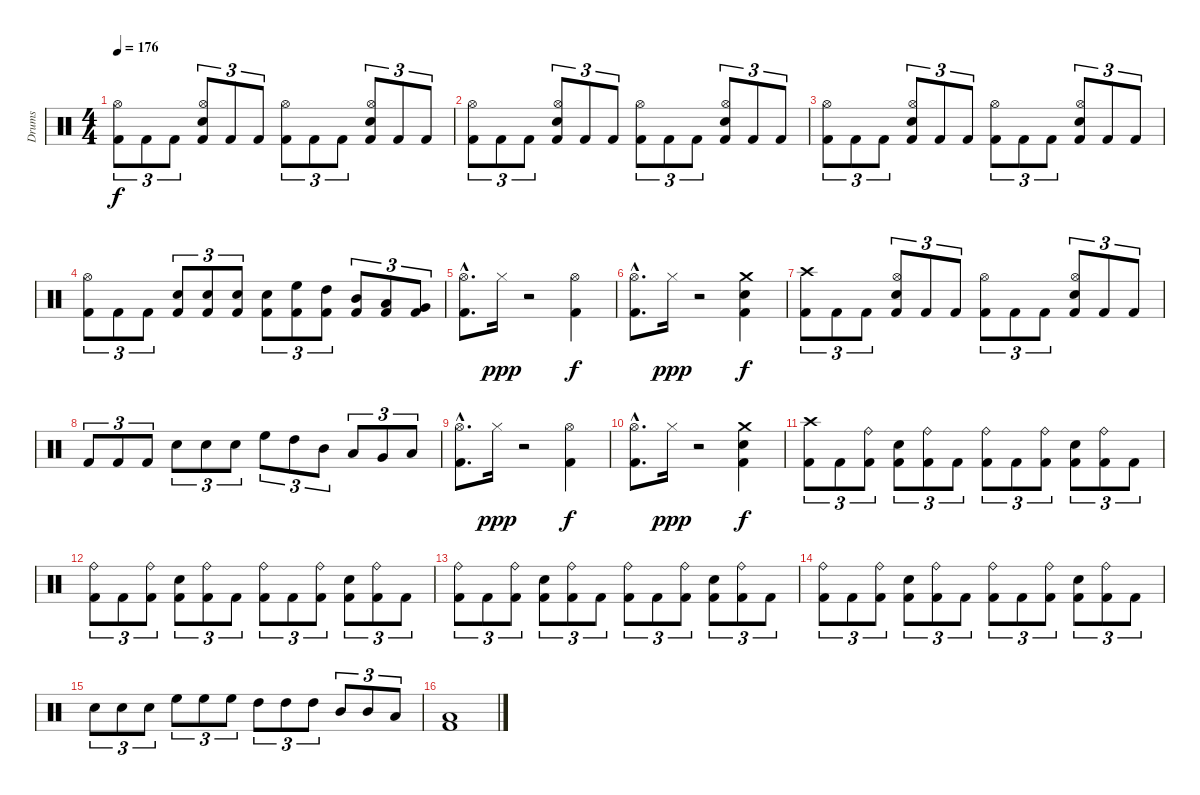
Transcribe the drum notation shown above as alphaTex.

\track ("Drums" "Drums") {instrument percussion}
\staff {score}
\articulation defaults
\ts (4 4)
\tempo 176
\clef neutral
\ks c
("Kick (hit) 2" "Hi-Hat (open)").8{tu (3 2) dy f} "Kick (hit) 2".8{tu (3 2)} "Kick (hit) 2".8{tu (3 2)} ("Kick (hit) 2" "Electric Snare (hit)" "Hi-Hat (open)").8{tu (3 2)} "Kick (hit) 2".8{tu (3 2)} "Kick (hit) 2".8{tu (3 2)} ("Kick (hit) 2" "Hi-Hat (open)").8{tu (3 2)} "Kick (hit) 2".8{tu (3 2)} "Kick (hit) 2".8{tu (3 2)} ("Kick (hit) 2" "Electric Snare (hit)" "Hi-Hat (open)").8{tu (3 2)} "Kick (hit) 2".8{tu (3 2)} "Kick (hit) 2".8{tu (3 2)} |
("Kick (hit) 2" "Hi-Hat (open)").8{tu (3 2)} "Kick (hit) 2".8{tu (3 2)} "Kick (hit) 2".8{tu (3 2)} ("Kick (hit) 2" "Electric Snare (hit)" "Hi-Hat (open)").8{tu (3 2)} "Kick (hit) 2".8{tu (3 2)} "Kick (hit) 2".8{tu (3 2)} ("Kick (hit) 2" "Hi-Hat (open)").8{tu (3 2)} "Kick (hit) 2".8{tu (3 2)} "Kick (hit) 2".8{tu (3 2)} ("Kick (hit) 2" "Electric Snare (hit)" "Hi-Hat (open)").8{tu (3 2)} "Kick (hit) 2".8{tu (3 2)} "Kick (hit) 2".8{tu (3 2)} |
("Kick (hit) 2" "Hi-Hat (open)").8{tu (3 2)} "Kick (hit) 2".8{tu (3 2)} "Kick (hit) 2".8{tu (3 2)} ("Kick (hit) 2" "Electric Snare (hit)" "Hi-Hat (open)").8{tu (3 2)} "Kick (hit) 2".8{tu (3 2)} "Kick (hit) 2".8{tu (3 2)} ("Kick (hit) 2" "Hi-Hat (open)").8{tu (3 2)} "Kick (hit) 2".8{tu (3 2)} "Kick (hit) 2".8{tu (3 2)} ("Kick (hit) 2" "Electric Snare (hit)" "Hi-Hat (open)").8{tu (3 2)} "Kick (hit) 2".8{tu (3 2)} "Kick (hit) 2".8{tu (3 2)} |
("Kick (hit) 2" "Hi-Hat (open)").8{tu (3 2)} "Kick (hit) 2".8{tu (3 2)} "Kick (hit) 2".8{tu (3 2)} ("Kick (hit) 2" "Electric Snare (hit)").8{tu (3 2)} ("Kick (hit) 2" "Electric Snare (hit)").8{tu (3 2)} ("Kick (hit) 2" "Electric Snare (hit)").8{tu (3 2)} ("Kick (hit) 2" "Electric Snare (hit)").8{tu (3 2)} ("Kick (hit) 2" "High Floor Tom (hit)").8{tu (3 2)} ("Kick (hit) 2" "High Tom (hit)").8{tu (3 2)} ("Kick (hit) 2" "Mid Tom (hit)").8{tu (3 2)} ("Kick (hit) 2" "Low Tom (hit)").8{tu (3 2)} ("Kick (hit) 2" "Very Low Tom (hit)").8{tu (3 2)} |
("Kick (hit) 2"{hac} "Hi-Hat (open)"{hac}).8{d} "Hi-Hat (closed)".16{dy ppp} r.2 ("Kick (hit) 2" "Hi-Hat (open)").4{dy f} |
("Kick (hit) 2"{hac} "Hi-Hat (open)"{hac}).8{d} "Hi-Hat (closed)".16{dy ppp} r.2 ("Kick (hit) 2" "Electric Snare (hit)" "Crash medium (hit)").4{dy f} |
("Kick (hit) 2" "Crash high (hit)").8{tu (3 2)} "Kick (hit) 2".8{tu (3 2)} "Kick (hit) 2".8{tu (3 2)} ("Kick (hit) 2" "Electric Snare (hit)" "Hi-Hat (open)").8{tu (3 2)} "Kick (hit) 2".8{tu (3 2)} "Kick (hit) 2".8{tu (3 2)} ("Kick (hit) 2" "Hi-Hat (open)").8{tu (3 2)} "Kick (hit) 2".8{tu (3 2)} "Kick (hit) 2".8{tu (3 2)} ("Kick (hit) 2" "Electric Snare (hit)" "Hi-Hat (open)").8{tu (3 2)} "Kick (hit) 2".8{tu (3 2)} "Kick (hit) 2".8{tu (3 2)} |
"Kick (hit) 2".8{tu (3 2)} "Kick (hit) 2".8{tu (3 2)} "Kick (hit) 2".8{tu (3 2)} "Electric Snare (hit)".8{tu (3 2)} "Electric Snare (hit)".8{tu (3 2)} "Electric Snare (hit)".8{tu (3 2)} "High Floor Tom (hit)".8{tu (3 2)} "High Tom (hit)".8{tu (3 2)} "Mid Tom (hit)".8{tu (3 2)} "Low Tom (hit)".8{tu (3 2)} "Very Low Tom (hit)".8{tu (3 2)} "Low Floor Tom (hit)".8{tu (3 2)} |
("Kick (hit) 2"{hac} "Hi-Hat (open)"{hac}).8{d} "Hi-Hat (closed)".16{dy ppp} r.2 ("Kick (hit) 2" "Hi-Hat (open)").4{dy f} |
("Kick (hit) 2"{hac} "Hi-Hat (open)"{hac}).8{d} "Hi-Hat (closed)".16{dy ppp} r.2 ("Kick (hit) 2" "Electric Snare (hit)" "Crash medium (hit)").4{dy f} |
\section ("" "")
("Kick (hit) 2" "Crash high (hit)").8{tu (3 2)} "Kick (hit) 2".8{tu (3 2)} ("Kick (hit) 2" "Ride (bell)").8{tu (3 2)} ("Kick (hit) 2" "Electric Snare (hit)").8{tu (3 2)} ("Kick (hit) 2" "Ride (bell)").8{tu (3 2)} "Kick (hit) 2".8{tu (3 2)} ("Kick (hit) 2" "Ride (bell)").8{tu (3 2)} "Kick (hit) 2".8{tu (3 2)} ("Kick (hit) 2" "Ride (bell)").8{tu (3 2)} ("Kick (hit) 2" "Electric Snare (hit)").8{tu (3 2)} ("Kick (hit) 2" "Ride (bell)").8{tu (3 2)} "Kick (hit) 2".8{tu (3 2)} |
("Kick (hit) 2" "Ride (bell)").8{tu (3 2)} "Kick (hit) 2".8{tu (3 2)} ("Kick (hit) 2" "Ride (bell)").8{tu (3 2)} ("Kick (hit) 2" "Electric Snare (hit)").8{tu (3 2)} ("Kick (hit) 2" "Ride (bell)").8{tu (3 2)} "Kick (hit) 2".8{tu (3 2)} ("Kick (hit) 2" "Ride (bell)").8{tu (3 2)} "Kick (hit) 2".8{tu (3 2)} ("Kick (hit) 2" "Ride (bell)").8{tu (3 2)} ("Kick (hit) 2" "Electric Snare (hit)").8{tu (3 2)} ("Kick (hit) 2" "Ride (bell)").8{tu (3 2)} "Kick (hit) 2".8{tu (3 2)} |
("Kick (hit) 2" "Ride (bell)").8{tu (3 2)} "Kick (hit) 2".8{tu (3 2)} ("Kick (hit) 2" "Ride (bell)").8{tu (3 2)} ("Kick (hit) 2" "Electric Snare (hit)").8{tu (3 2)} ("Kick (hit) 2" "Ride (bell)").8{tu (3 2)} "Kick (hit) 2".8{tu (3 2)} ("Kick (hit) 2" "Ride (bell)").8{tu (3 2)} "Kick (hit) 2".8{tu (3 2)} ("Kick (hit) 2" "Ride (bell)").8{tu (3 2)} ("Kick (hit) 2" "Electric Snare (hit)").8{tu (3 2)} ("Kick (hit) 2" "Ride (bell)").8{tu (3 2)} "Kick (hit) 2".8{tu (3 2)} |
("Kick (hit) 2" "Ride (bell)").8{tu (3 2)} "Kick (hit) 2".8{tu (3 2)} ("Kick (hit) 2" "Ride (bell)").8{tu (3 2)} ("Kick (hit) 2" "Electric Snare (hit)").8{tu (3 2)} ("Kick (hit) 2" "Ride (bell)").8{tu (3 2)} "Kick (hit) 2".8{tu (3 2)} ("Kick (hit) 2" "Ride (bell)").8{tu (3 2)} "Kick (hit) 2".8{tu (3 2)} ("Kick (hit) 2" "Ride (bell)").8{tu (3 2)} ("Kick (hit) 2" "Electric Snare (hit)").8{tu (3 2)} ("Kick (hit) 2" "Ride (bell)").8{tu (3 2)} "Kick (hit) 2".8{tu (3 2)} |
"Electric Snare (hit)".8{tu (3 2)} "Electric Snare (hit)".8{tu (3 2)} "Electric Snare (hit)".8{tu (3 2)} "High Floor Tom (hit)".8{tu (3 2)} "High Floor Tom (hit)".8{tu (3 2)} "High Floor Tom (hit)".8{tu (3 2)} "High Tom (hit)".8{tu (3 2)} "High Tom (hit)".8{tu (3 2)} "High Tom (hit)".8{tu (3 2)} "Mid Tom (hit)".8{tu (3 2)} "Mid Tom (hit)".8{tu (3 2)} "Low Tom (hit)".8{tu (3 2)} |
("Kick (hit) 2" "Low Tom (hit)").1
